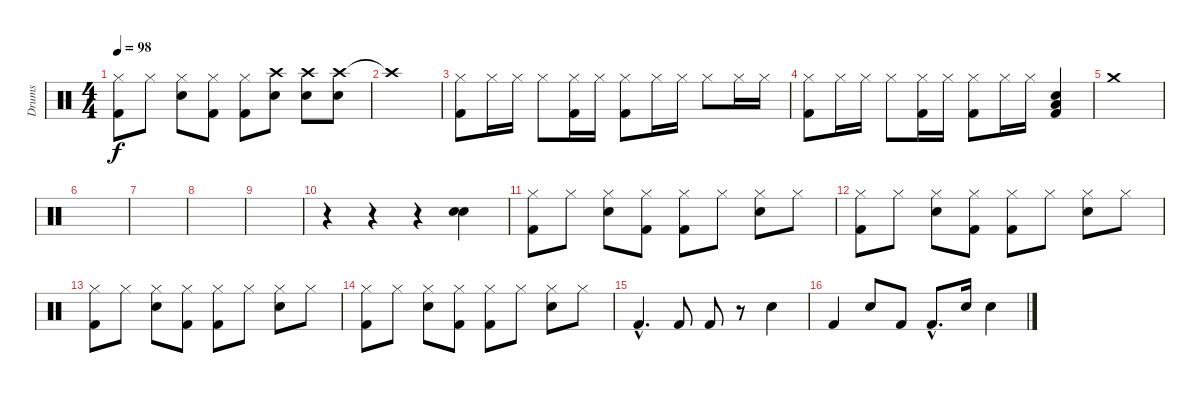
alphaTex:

\track ("Drums" "Drums") {instrument percussion}
\staff {score}
\articulation defaults
\ts (4 4)
\tempo 98
\clef neutral
\ks c
("Hi-Hat (closed)" "Kick (hit) 2").8{dy f} "Hi-Hat (closed)".8 ("Hi-Hat (closed)" "Electric Snare (hit)").8 ("Hi-Hat (closed)" "Kick (hit) 2").8 ("Hi-Hat (closed)" "Kick (hit) 2").8 ("Crash high (hit)" "Electric Snare (hit)").8 ("Crash high (hit)" "Electric Snare (hit)").8 ("Crash high (hit)" "Electric Snare (hit)").8 |
"Crash high (hit)"{t}.1 |
("Hi-Hat (closed)" "Kick (hit) 2").8 "Hi-Hat (closed)".16 "Hi-Hat (closed)".16 "Hi-Hat (closed)".8 ("Hi-Hat (closed)" "Kick (hit) 2").16 "Hi-Hat (closed)".16 ("Hi-Hat (closed)" "Kick (hit) 2").8 "Hi-Hat (closed)".16 "Hi-Hat (closed)".16 "Hi-Hat (closed)".8 "Hi-Hat (closed)".16 "Hi-Hat (closed)".16 |
("Hi-Hat (closed)" "Kick (hit) 2").8 "Hi-Hat (closed)".16 "Hi-Hat (closed)".16 "Hi-Hat (closed)".8 ("Hi-Hat (closed)" "Kick (hit) 2").16 "Hi-Hat (closed)".16 ("Hi-Hat (closed)" "Kick (hit) 2").8 "Hi-Hat (closed)".16 "Hi-Hat (closed)".16 ("Kick (hit) 2" "Low Tom (hit)" "Electric Snare (hit)").4 |
"Crash medium (hit)".1 |
|
|
|
|
r.4 r.4 r.4 ("Electric Snare (hit)" "Electric Snare (hit)").4 |
("Hi-Hat (closed)" "Kick (hit) 2").8 "Hi-Hat (closed)".8 ("Hi-Hat (closed)" "Electric Snare (hit)").8 ("Hi-Hat (closed)" "Kick (hit) 2").8 ("Hi-Hat (closed)" "Kick (hit) 2").8 "Hi-Hat (closed)".8 ("Hi-Hat (closed)" "Electric Snare (hit)").8 "Hi-Hat (closed)".8 |
("Hi-Hat (closed)" "Kick (hit) 2").8 "Hi-Hat (closed)".8 ("Hi-Hat (closed)" "Electric Snare (hit)").8 ("Hi-Hat (closed)" "Kick (hit) 2").8 ("Hi-Hat (closed)" "Kick (hit) 2").8 "Hi-Hat (closed)".8 ("Hi-Hat (closed)" "Electric Snare (hit)").8 "Hi-Hat (closed)".8 |
("Hi-Hat (closed)" "Kick (hit) 2").8 "Hi-Hat (closed)".8 ("Hi-Hat (closed)" "Electric Snare (hit)").8 ("Hi-Hat (closed)" "Kick (hit) 2").8 ("Hi-Hat (closed)" "Kick (hit) 2").8 "Hi-Hat (closed)".8 ("Hi-Hat (closed)" "Electric Snare (hit)").8 "Hi-Hat (closed)".8 |
("Hi-Hat (closed)" "Kick (hit) 2").8 "Hi-Hat (closed)".8 ("Hi-Hat (closed)" "Electric Snare (hit)").8 ("Hi-Hat (closed)" "Kick (hit) 2").8 ("Hi-Hat (closed)" "Kick (hit) 2").8 "Hi-Hat (closed)".8 ("Hi-Hat (closed)" "Electric Snare (hit)").8 "Hi-Hat (closed)".8 |
"Kick (hit) 2"{hac}.4{d} "Kick (hit) 2".8 "Kick (hit) 2".8 r.8 "Electric Snare (hit)".4 |
"Kick (hit) 2".4 "Electric Snare (hit)".8 "Kick (hit) 2".8 "Kick (hit) 2"{hac}.8{d} "Electric Snare (hit)".16 "Electric Snare (hit)".4
